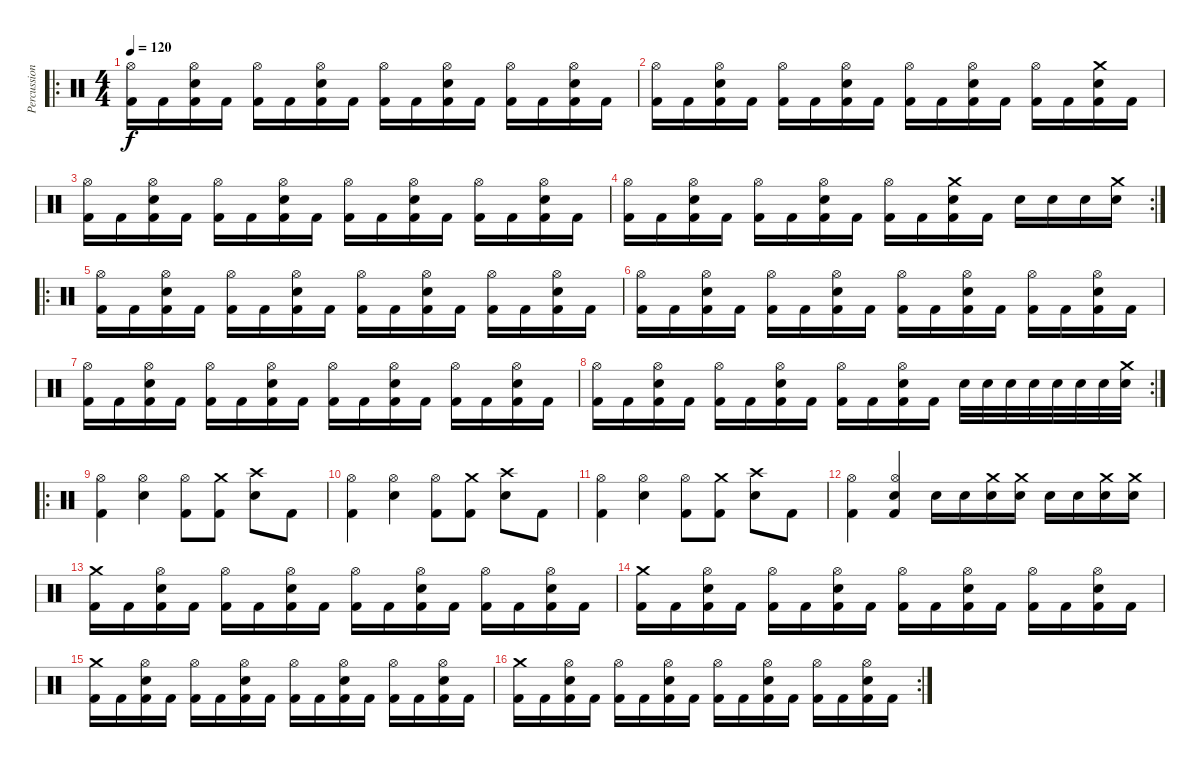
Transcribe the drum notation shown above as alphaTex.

\track ("Percussions" "Percussion") {instrument percussion}
\staff {score}
\articulation defaults
\ro
\ts (4 4)
\tempo 120
\clef neutral
\ks c
("Kick (hit) 2" "Hi-Hat (open)").16{dy f} "Kick (hit) 2".16 ("Kick (hit) 2" "Electric Snare (hit)" "Hi-Hat (open)").16 "Kick (hit) 2".16 ("Kick (hit) 2" "Hi-Hat (open)").16 "Kick (hit) 2".16 ("Kick (hit) 2" "Electric Snare (hit)" "Hi-Hat (open)").16 "Kick (hit) 2".16 ("Kick (hit) 2" "Hi-Hat (open)").16 "Kick (hit) 2".16 ("Kick (hit) 2" "Electric Snare (hit)" "Hi-Hat (open)").16 "Kick (hit) 2".16 ("Kick (hit) 2" "Hi-Hat (open)").16 "Kick (hit) 2".16 ("Kick (hit) 2" "Electric Snare (hit)" "Hi-Hat (open)").16 "Kick (hit) 2".16 |
("Kick (hit) 2" "Hi-Hat (open)").16 "Kick (hit) 2".16 ("Kick (hit) 2" "Electric Snare (hit)" "Hi-Hat (open)").16 "Kick (hit) 2".16 ("Kick (hit) 2" "Hi-Hat (open)").16 "Kick (hit) 2".16 ("Kick (hit) 2" "Electric Snare (hit)" "Hi-Hat (open)").16 "Kick (hit) 2".16 ("Kick (hit) 2" "Hi-Hat (open)").16 "Kick (hit) 2".16 ("Kick (hit) 2" "Electric Snare (hit)" "Hi-Hat (open)").16 "Kick (hit) 2".16 ("Kick (hit) 2" "Hi-Hat (open)").16 "Kick (hit) 2".16 ("Kick (hit) 2" "Electric Snare (hit)" "Crash medium (hit)").16 "Kick (hit) 2".16 |
("Kick (hit) 2" "Hi-Hat (open)").16 "Kick (hit) 2".16 ("Kick (hit) 2" "Electric Snare (hit)" "Hi-Hat (open)").16 "Kick (hit) 2".16 ("Kick (hit) 2" "Hi-Hat (open)").16 "Kick (hit) 2".16 ("Kick (hit) 2" "Electric Snare (hit)" "Hi-Hat (open)").16 "Kick (hit) 2".16 ("Kick (hit) 2" "Hi-Hat (open)").16 "Kick (hit) 2".16 ("Kick (hit) 2" "Electric Snare (hit)" "Hi-Hat (open)").16 "Kick (hit) 2".16 ("Kick (hit) 2" "Hi-Hat (open)").16 "Kick (hit) 2".16 ("Kick (hit) 2" "Electric Snare (hit)" "Hi-Hat (open)").16 "Kick (hit) 2".16 |
\rc 2
("Kick (hit) 2" "Hi-Hat (open)").16 "Kick (hit) 2".16 ("Kick (hit) 2" "Electric Snare (hit)" "Hi-Hat (open)").16 "Kick (hit) 2".16 ("Kick (hit) 2" "Hi-Hat (open)").16 "Kick (hit) 2".16 ("Kick (hit) 2" "Electric Snare (hit)" "Hi-Hat (open)").16 "Kick (hit) 2".16 ("Kick (hit) 2" "Hi-Hat (open)").16 "Kick (hit) 2".16 ("Kick (hit) 2" "Electric Snare (hit)" "Crash medium (hit)").16 "Kick (hit) 2".16 "Electric Snare (hit)".16 "Electric Snare (hit)".16 "Electric Snare (hit)".16 ("Electric Snare (hit)" "Crash medium (hit)").16 |
\ro
("Kick (hit) 2" "Hi-Hat (open)").16 "Kick (hit) 2".16 ("Kick (hit) 2" "Electric Snare (hit)" "Hi-Hat (open)").16 "Kick (hit) 2".16 ("Kick (hit) 2" "Hi-Hat (open)").16 "Kick (hit) 2".16 ("Kick (hit) 2" "Electric Snare (hit)" "Hi-Hat (open)").16 "Kick (hit) 2".16 ("Kick (hit) 2" "Hi-Hat (open)").16 "Kick (hit) 2".16 ("Kick (hit) 2" "Electric Snare (hit)" "Hi-Hat (open)").16 "Kick (hit) 2".16 ("Kick (hit) 2" "Hi-Hat (open)").16 "Kick (hit) 2".16 ("Kick (hit) 2" "Electric Snare (hit)" "Hi-Hat (open)").16 "Kick (hit) 2".16 |
("Kick (hit) 2" "Hi-Hat (open)").16 "Kick (hit) 2".16 ("Kick (hit) 2" "Electric Snare (hit)" "Hi-Hat (open)").16 "Kick (hit) 2".16 ("Kick (hit) 2" "Hi-Hat (open)").16 "Kick (hit) 2".16 ("Kick (hit) 2" "Electric Snare (hit)" "Hi-Hat (open)").16 "Kick (hit) 2".16 ("Kick (hit) 2" "Hi-Hat (open)").16 "Kick (hit) 2".16 ("Kick (hit) 2" "Electric Snare (hit)" "Hi-Hat (open)").16 "Kick (hit) 2".16 ("Kick (hit) 2" "Hi-Hat (open)").16 "Kick (hit) 2".16 ("Kick (hit) 2" "Electric Snare (hit)" "Hi-Hat (open)").16 "Kick (hit) 2".16 |
("Kick (hit) 2" "Hi-Hat (open)").16 "Kick (hit) 2".16 ("Kick (hit) 2" "Electric Snare (hit)" "Hi-Hat (open)").16 "Kick (hit) 2".16 ("Kick (hit) 2" "Hi-Hat (open)").16 "Kick (hit) 2".16 ("Kick (hit) 2" "Electric Snare (hit)" "Hi-Hat (open)").16 "Kick (hit) 2".16 ("Kick (hit) 2" "Hi-Hat (open)").16 "Kick (hit) 2".16 ("Kick (hit) 2" "Electric Snare (hit)" "Hi-Hat (open)").16 "Kick (hit) 2".16 ("Kick (hit) 2" "Hi-Hat (open)").16 "Kick (hit) 2".16 ("Kick (hit) 2" "Electric Snare (hit)" "Hi-Hat (open)").16 "Kick (hit) 2".16 |
\rc 2
("Kick (hit) 2" "Hi-Hat (open)").16 "Kick (hit) 2".16 ("Kick (hit) 2" "Electric Snare (hit)" "Hi-Hat (open)").16 "Kick (hit) 2".16 ("Kick (hit) 2" "Hi-Hat (open)").16 "Kick (hit) 2".16 ("Kick (hit) 2" "Electric Snare (hit)" "Hi-Hat (open)").16 "Kick (hit) 2".16 ("Kick (hit) 2" "Hi-Hat (open)").16 "Kick (hit) 2".16 ("Kick (hit) 2" "Electric Snare (hit)" "Hi-Hat (open)").16 "Kick (hit) 2".16 "Electric Snare (hit)".32 "Electric Snare (hit)".32 "Electric Snare (hit)".32 "Electric Snare (hit)".32 "Snare (hit) 2".32 "Snare (hit) 2".32 "Snare (hit) 2".32 ("Snare (hit) 2" "Crash medium (hit)").32 |
\ro
("Kick (hit) 2" "Hi-Hat (open)").4 ("Electric Snare (hit)" "Hi-Hat (open)").4 ("Kick (hit) 2" "Hi-Hat (open)").8 ("Crash medium (hit)" "Kick (hit) 2").8 ("Crash high (hit)" "Electric Snare (hit)").8 "Kick (hit) 2".8 |
("Kick (hit) 2" "Hi-Hat (open)").4 ("Electric Snare (hit)" "Hi-Hat (open)").4 ("Kick (hit) 2" "Hi-Hat (open)").8 ("Crash medium (hit)" "Kick (hit) 2").8 ("Crash high (hit)" "Electric Snare (hit)").8 "Kick (hit) 2".8 |
("Kick (hit) 2" "Hi-Hat (open)").4 ("Electric Snare (hit)" "Hi-Hat (open)").4 ("Kick (hit) 2" "Hi-Hat (open)").8 ("Crash medium (hit)" "Kick (hit) 2").8 ("Crash high (hit)" "Electric Snare (hit)").8 "Kick (hit) 2".8 |
("Kick (hit) 2" "Hi-Hat (open)").4 ("Kick (hit) 2" "Electric Snare (hit)" "Hi-Hat (open)").4 "Electric Snare (hit)".16 "Electric Snare (hit)".16 ("Snare (hit) 2" "Crash medium (hit)").16 ("Snare (hit) 2" "Crash medium (hit)").16 "Electric Snare (hit)".16 "Electric Snare (hit)".16 ("Snare (hit) 2" "Crash medium (hit)").16 ("Snare (hit) 2" "Crash medium (hit)").16 |
("Kick (hit) 2" "Crash medium (hit)").16 "Kick (hit) 2".16 ("Kick (hit) 2" "Electric Snare (hit)" "Hi-Hat (open)").16 "Kick (hit) 2".16 ("Kick (hit) 2" "Hi-Hat (open)").16 "Kick (hit) 2".16 ("Kick (hit) 2" "Electric Snare (hit)" "Hi-Hat (open)").16 "Kick (hit) 2".16 ("Kick (hit) 2" "Hi-Hat (open)").16 "Kick (hit) 2".16 ("Kick (hit) 2" "Electric Snare (hit)" "Hi-Hat (open)").16 "Kick (hit) 2".16 ("Kick (hit) 2" "Hi-Hat (open)").16 "Kick (hit) 2".16 ("Kick (hit) 2" "Electric Snare (hit)" "Hi-Hat (open)").16 "Kick (hit) 2".16 |
("Kick (hit) 2" "Crash medium (hit)").16 "Kick (hit) 2".16 ("Kick (hit) 2" "Electric Snare (hit)" "Hi-Hat (open)").16 "Kick (hit) 2".16 ("Kick (hit) 2" "Hi-Hat (open)").16 "Kick (hit) 2".16 ("Kick (hit) 2" "Electric Snare (hit)" "Hi-Hat (open)").16 "Kick (hit) 2".16 ("Kick (hit) 2" "Hi-Hat (open)").16 "Kick (hit) 2".16 ("Kick (hit) 2" "Electric Snare (hit)" "Hi-Hat (open)").16 "Kick (hit) 2".16 ("Kick (hit) 2" "Hi-Hat (open)").16 "Kick (hit) 2".16 ("Kick (hit) 2" "Electric Snare (hit)" "Hi-Hat (open)").16 "Kick (hit) 2".16 |
("Kick (hit) 2" "Crash medium (hit)").16 "Kick (hit) 2".16 ("Kick (hit) 2" "Electric Snare (hit)" "Hi-Hat (open)").16 "Kick (hit) 2".16 ("Kick (hit) 2" "Hi-Hat (open)").16 "Kick (hit) 2".16 ("Kick (hit) 2" "Electric Snare (hit)" "Hi-Hat (open)").16 "Kick (hit) 2".16 ("Kick (hit) 2" "Hi-Hat (open)").16 "Kick (hit) 2".16 ("Kick (hit) 2" "Electric Snare (hit)" "Hi-Hat (open)").16 "Kick (hit) 2".16 ("Kick (hit) 2" "Hi-Hat (open)").16 "Kick (hit) 2".16 ("Kick (hit) 2" "Electric Snare (hit)" "Hi-Hat (open)").16 "Kick (hit) 2".16 |
\rc 2
("Kick (hit) 2" "Crash medium (hit)").16 "Kick (hit) 2".16 ("Kick (hit) 2" "Electric Snare (hit)" "Hi-Hat (open)").16 "Kick (hit) 2".16 ("Kick (hit) 2" "Hi-Hat (open)").16 "Kick (hit) 2".16 ("Kick (hit) 2" "Electric Snare (hit)" "Hi-Hat (open)").16 "Kick (hit) 2".16 ("Kick (hit) 2" "Hi-Hat (open)").16 "Kick (hit) 2".16 ("Kick (hit) 2" "Electric Snare (hit)" "Hi-Hat (open)").16 "Kick (hit) 2".16 ("Kick (hit) 2" "Hi-Hat (open)").16 "Kick (hit) 2".16 ("Kick (hit) 2" "Electric Snare (hit)" "Hi-Hat (open)").16 "Kick (hit) 2".16
